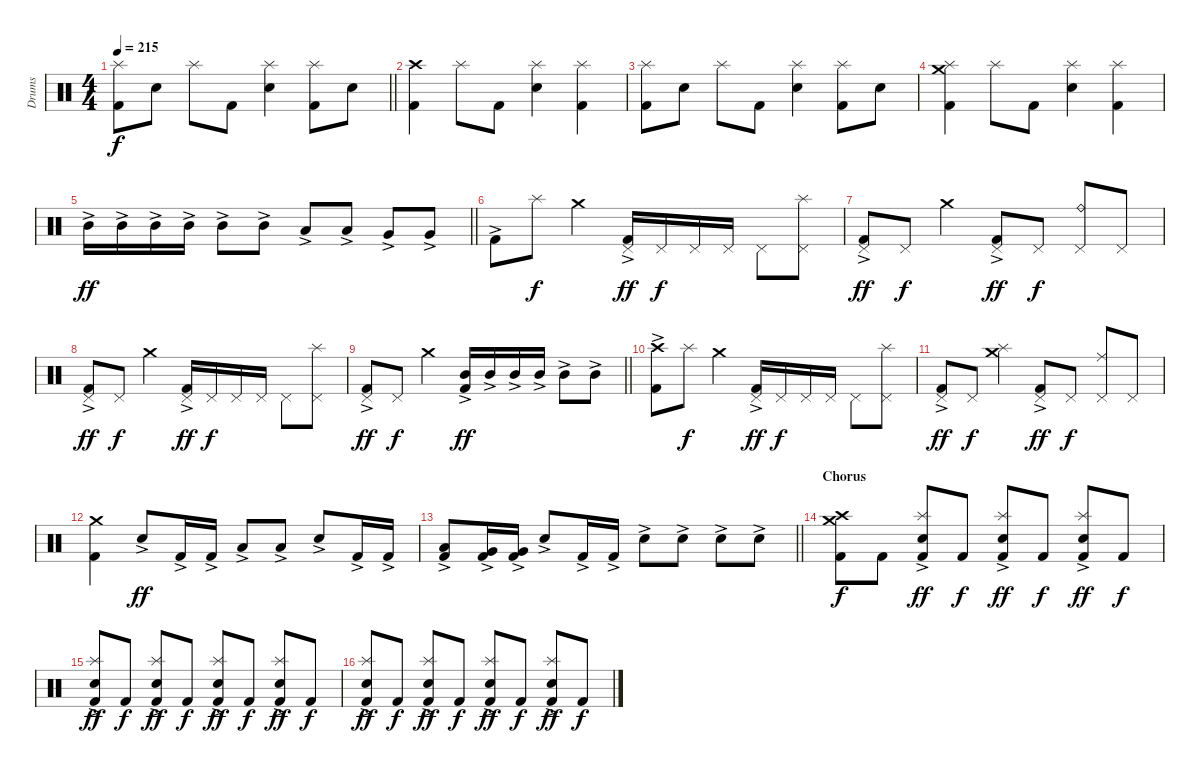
\track ("Drums" "Drums") {instrument percussion}
\staff {score}
\articulation defaults
\ts (4 4)
\tempo 215
\clef neutral
\barLineRight lightlight
\ks c
("Kick (hit) 2" "Splash (hit)").8{dy f} "Snare (hit) 2".8 "Splash (hit)".8 "Kick (hit) 2".8 ("Snare (hit) 2" "Splash (hit)").4 ("Kick (hit) 2" "Splash (hit)").8 "Snare (hit) 2".8 |
\section ("" "")
("Kick (hit) 2" "Crash high (hit)").4 "Splash (hit)".8 "Kick (hit) 2".8 ("Snare (hit) 2" "Splash (hit)").4 ("Kick (hit) 2" "Splash (hit)").4 |
("Kick (hit) 2" "Splash (hit)").8 "Snare (hit) 2".8 "Splash (hit)".8 "Kick (hit) 2".8 ("Snare (hit) 2" "Splash (hit)").4 ("Kick (hit) 2" "Splash (hit)").8 "Snare (hit) 2".8 |
("Kick (hit) 2" "Splash (hit)" "Crash medium (hit)").4 "Splash (hit)".8 "Kick (hit) 2".8 ("Snare (hit) 2" "Splash (hit)").4 ("Kick (hit) 2" "Splash (hit)").4 |
\barLineRight lightlight "Mid Tom (hit)"{ac}.16{dy ff} "Mid Tom (hit)"{ac}.16 "Mid Tom (hit)"{ac}.16 "Mid Tom (hit)"{ac}.16 "Mid Tom (hit)"{ac}.8 "Mid Tom (hit)"{ac}.8 "Low Tom (hit)"{ac}.8 "Low Tom (hit)"{ac}.8 "Very Low Tom (hit)"{ac}.8 "Very Low Tom (hit)"{ac}.8
|
\section ("" "")
"Kick (hit) 2"{ac}.8 "Splash (hit)".8{dy f} "Crash medium (hit)".4 ("Kick (hit) 2"{ac} "Pedal Hi-Hat (hit)").16{dy ff} "Pedal Hi-Hat (hit)".16{dy f} "Pedal Hi-Hat (hit)".16 "Pedal Hi-Hat (hit)".16 "Pedal Hi-Hat (hit)".8 ("Pedal Hi-Hat (hit)" "Splash (hit)").8 |
("Kick (hit) 2"{ac} "Pedal Hi-Hat (hit)").8{dy ff} "Pedal Hi-Hat (hit)".8{dy f} "Crash medium (hit)".4 ("Kick (hit) 2"{ac} "Pedal Hi-Hat (hit)").8{dy ff} "Pedal Hi-Hat (hit)".8{dy f} ("Pedal Hi-Hat (hit)" "Ride (bell)").8 "Pedal Hi-Hat (hit)".8 |
("Kick (hit) 2"{ac} "Pedal Hi-Hat (hit)").8{dy ff} "Pedal Hi-Hat (hit)".8{dy f} "Crash medium (hit)".4 ("Kick (hit) 2"{ac} "Pedal Hi-Hat (hit)").16{dy ff} "Pedal Hi-Hat (hit)".16{dy f} "Pedal Hi-Hat (hit)".16 "Pedal Hi-Hat (hit)".16 "Pedal Hi-Hat (hit)".8 ("Pedal Hi-Hat (hit)" "Splash (hit)").8 |
\barLineRight lightlight
("Kick (hit) 2"{ac} "Pedal Hi-Hat (hit)").8{dy ff} "Pedal Hi-Hat (hit)".8{dy f} "Crash medium (hit)".4 ("Kick (hit) 2"{ac} "Mid Tom (hit)"{ac}).16{dy ff} "Mid Tom (hit)"{ac}.16 "Mid Tom (hit)"{ac}.16 "Mid Tom (hit)"{ac}.16 "Mid Tom (hit)"{ac}.8 "Mid Tom (hit)"{ac}.8 |
\section ("" "")
("Kick (hit) 2"{ac} "Crash high (hit)").8 "Splash (hit)".8{dy f} "Crash medium (hit)".4 ("Kick (hit) 2"{ac} "Pedal Hi-Hat (hit)").16{dy ff} "Pedal Hi-Hat (hit)".16{dy f} "Pedal Hi-Hat (hit)".16 "Pedal Hi-Hat (hit)".16 "Pedal Hi-Hat (hit)".8 ("Pedal Hi-Hat (hit)" "Splash (hit)").8 |
("Kick (hit) 2"{ac} "Pedal Hi-Hat (hit)").8{dy ff} "Pedal Hi-Hat (hit)".8{dy f} ("Splash (hit)" "Crash medium (hit)").4 ("Kick (hit) 2"{ac} "Pedal Hi-Hat (hit)").8{dy ff} "Pedal Hi-Hat (hit)".8{dy f} ("Pedal Hi-Hat (hit)" "Ride (middle)").8 "Pedal Hi-Hat (hit)".8 |
("Kick (hit) 2" "Crash medium (hit)").4 "Snare (hit) 2"{ac}.8{dy ff} "Kick (hit) 2"{ac}.16 "Kick (hit) 2"{ac}.16 "Low Tom (hit)"{ac}.8 "Low Tom (hit)"{ac}.8 "Snare (hit) 2"{ac}.8 "Kick (hit) 2"{ac}.16 "Kick (hit) 2"{ac}.16 |
\barLineRight lightlight
("Kick (hit) 2"{ac} "Low Tom (hit)"{ac}).8 ("Kick (hit) 2"{ac} "Very Low Tom (hit)"{ac}).16 ("Kick (hit) 2"{ac} "Very Low Tom (hit)"{ac}).16 "Snare (hit) 2"{ac}.8 "Kick (hit) 2"{ac}.16 "Kick (hit) 2"{ac}.16 "Snare (hit) 2"{ac}.8 "Snare (hit) 2"{ac}.8 "Snare (hit) 2"{ac}.8 "Snare (hit) 2"{ac}.8 |
\section ("" "Chorus")
("Kick (hit) 2" "Crash medium (hit)" "Crash high (hit)").8{dy f} "Kick (hit) 2".8 ("Kick (hit) 2" "Snare (hit) 2"{ac} "Splash (hit)").8{dy ff} "Kick (hit) 2".8{dy f} ("Kick (hit) 2" "Snare (hit) 2"{ac} "Splash (hit)").8{dy ff} "Kick (hit) 2".8{dy f} ("Kick (hit) 2" "Snare (hit) 2"{ac} "Splash (hit)").8{dy ff} "Kick (hit) 2".8{dy f} |
("Kick (hit) 2" "Snare (hit) 2"{ac} "Splash (hit)").8{dy ff} "Kick (hit) 2".8{dy f} ("Kick (hit) 2" "Snare (hit) 2"{ac} "Splash (hit)").8{dy ff} "Kick (hit) 2".8{dy f} ("Kick (hit) 2" "Snare (hit) 2"{ac} "Splash (hit)").8{dy ff} "Kick (hit) 2".8{dy f} ("Kick (hit) 2" "Snare (hit) 2"{ac} "Splash (hit)").8{dy ff} "Kick (hit) 2".8{dy f} |
("Kick (hit) 2" "Snare (hit) 2"{ac} "Splash (hit)").8{dy ff} "Kick (hit) 2".8{dy f} ("Kick (hit) 2" "Snare (hit) 2"{ac} "Splash (hit)").8{dy ff} "Kick (hit) 2".8{dy f} ("Kick (hit) 2" "Snare (hit) 2"{ac} "Splash (hit)").8{dy ff} "Kick (hit) 2".8{dy f} ("Kick (hit) 2" "Snare (hit) 2"{ac} "Splash (hit)").8{dy ff} "Kick (hit) 2".8{dy f}
